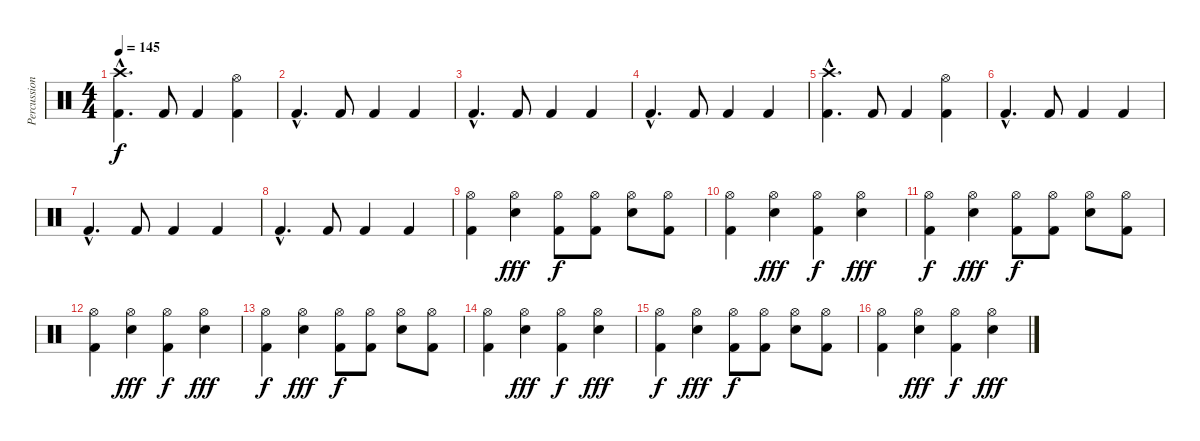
\track ("Percussion" "Percussion") {instrument percussion}
\staff {score}
\articulation defaults
\ts (4 4)
\tempo 145
\clef neutral
\ks c
("Crash high (hit)"{hac} "Kick (hit) 2"{hac}).4{d dy f} "Kick (hit) 2".8 "Kick (hit) 2".4 ("Hi-Hat (open)" "Kick (hit) 2").4 |
"Kick (hit) 2"{hac}.4{d} "Kick (hit) 2".8 "Kick (hit) 2".4 "Kick (hit) 2".4 |
"Kick (hit) 2"{hac}.4{d} "Kick (hit) 2".8 "Kick (hit) 2".4 "Kick (hit) 2".4 |
"Kick (hit) 2"{hac}.4{d} "Kick (hit) 2".8 "Kick (hit) 2".4 "Kick (hit) 2".4 |
("Crash high (hit)"{hac} "Kick (hit) 2"{hac}).4{d} "Kick (hit) 2".8 "Kick (hit) 2".4 ("Hi-Hat (open)" "Kick (hit) 2").4 |
"Kick (hit) 2"{hac}.4{d} "Kick (hit) 2".8 "Kick (hit) 2".4 "Kick (hit) 2".4 |
"Kick (hit) 2"{hac}.4{d} "Kick (hit) 2".8 "Kick (hit) 2".4 "Kick (hit) 2".4 |
"Kick (hit) 2"{hac}.4{d} "Kick (hit) 2".8 "Kick (hit) 2".4 "Kick (hit) 2".4 |
("Hi-Hat (open)" "Kick (hit) 2").4 ("Hi-Hat (open)" "Snare (hit) 2").4{dy fff} ("Hi-Hat (open)" "Kick (hit) 2").8{dy f} ("Hi-Hat (open)" "Kick (hit) 2").8 ("Hi-Hat (open)" "Snare (hit) 2").8 ("Hi-Hat (open)" "Kick (hit) 2").8 |
("Hi-Hat (open)" "Kick (hit) 2").4 ("Hi-Hat (open)" "Snare (hit) 2").4{dy fff} ("Hi-Hat (open)" "Kick (hit) 2").4{dy f} ("Hi-Hat (open)" "Snare (hit) 2").4{dy fff} |
("Hi-Hat (open)" "Kick (hit) 2").4{dy f} ("Hi-Hat (open)" "Snare (hit) 2").4{dy fff} ("Hi-Hat (open)" "Kick (hit) 2").8{dy f} ("Hi-Hat (open)" "Kick (hit) 2").8 ("Hi-Hat (open)" "Snare (hit) 2").8 ("Hi-Hat (open)" "Kick (hit) 2").8 |
("Hi-Hat (open)" "Kick (hit) 2").4 ("Hi-Hat (open)" "Snare (hit) 2").4{dy fff} ("Hi-Hat (open)" "Kick (hit) 2").4{dy f} ("Hi-Hat (open)" "Snare (hit) 2").4{dy fff} |
("Hi-Hat (open)" "Kick (hit) 2").4{dy f} ("Hi-Hat (open)" "Snare (hit) 2").4{dy fff} ("Hi-Hat (open)" "Kick (hit) 2").8{dy f} ("Hi-Hat (open)" "Kick (hit) 2").8 ("Hi-Hat (open)" "Snare (hit) 2").8 ("Hi-Hat (open)" "Kick (hit) 2").8 |
("Hi-Hat (open)" "Kick (hit) 2").4 ("Hi-Hat (open)" "Snare (hit) 2").4{dy fff} ("Hi-Hat (open)" "Kick (hit) 2").4{dy f} ("Hi-Hat (open)" "Snare (hit) 2").4{dy fff} |
("Hi-Hat (open)" "Kick (hit) 2").4{dy f} ("Hi-Hat (open)" "Snare (hit) 2").4{dy fff} ("Hi-Hat (open)" "Kick (hit) 2").8{dy f} ("Hi-Hat (open)" "Kick (hit) 2").8 ("Hi-Hat (open)" "Snare (hit) 2").8 ("Hi-Hat (open)" "Kick (hit) 2").8 |
("Hi-Hat (open)" "Kick (hit) 2").4 ("Hi-Hat (open)" "Snare (hit) 2").4{dy fff} ("Hi-Hat (open)" "Kick (hit) 2").4{dy f} ("Hi-Hat (open)" "Snare (hit) 2").4{dy fff}
